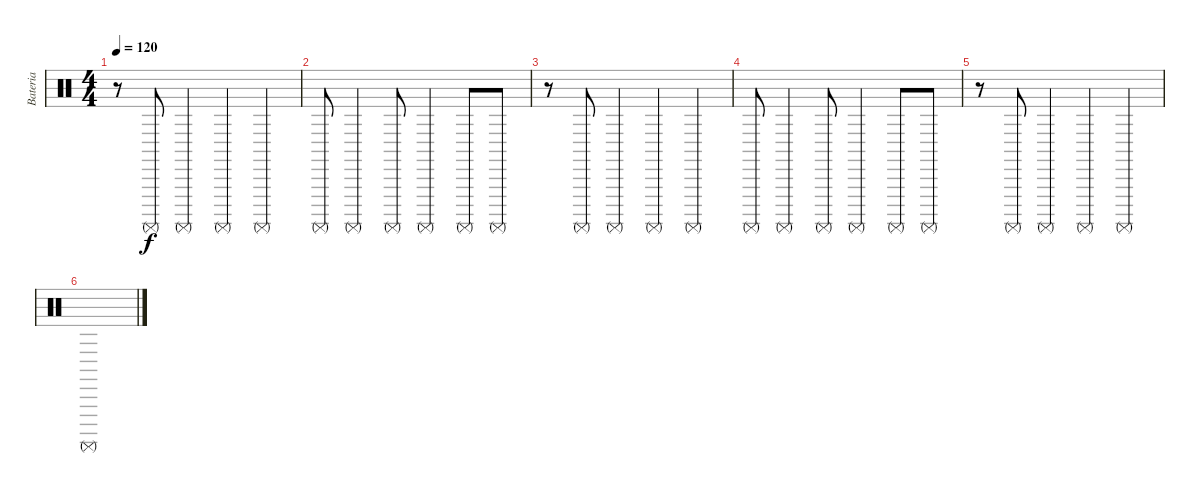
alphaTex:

\track ("Bateria" "Bateria") {instrument percussion}
\staff {score}
\articulation defaults
\ts (4 4)
\tempo 120
\clef neutral
\ks c
r.8{dy f volume 11} "Surdo (mute)".8 "Surdo (mute)".4 "Surdo (mute)".4 "Surdo (mute)".4 |
"Surdo (mute)".8{volume 9} "Surdo (mute)".4 "Surdo (mute)".8 "Surdo (mute)".4 "Surdo (mute)".8 "Surdo (mute)".8 |
r.8{volume 6} "Surdo (mute)".8 "Surdo (mute)".4 "Surdo (mute)".4 "Surdo (mute)".4 |
"Surdo (mute)".8{volume 4} "Surdo (mute)".4 "Surdo (mute)".8 "Surdo (mute)".4 "Surdo (mute)".8 "Surdo (mute)".8 |
r.8{volume 1} "Surdo (mute)".8 "Surdo (mute)".4 "Surdo (mute)".4 "Surdo (mute)".4 |
"Surdo (mute)".1
